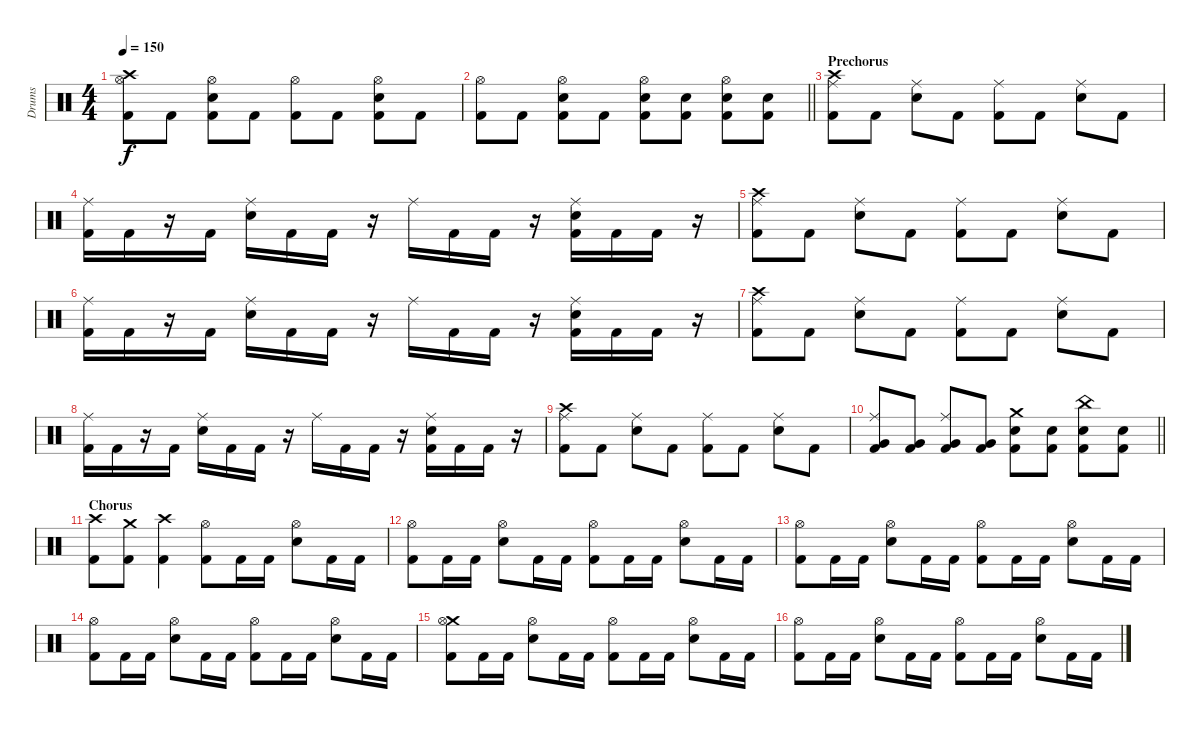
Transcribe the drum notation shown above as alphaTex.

\track ("Drums" "Drums") {instrument percussion}
\staff {score}
\articulation defaults
\ts (4 4)
\tempo 150
\clef neutral
\ks c
("Crash high (hit)" "Hi-Hat (open)" "Kick (hit) 2").8{dy f} "Kick (hit) 2".8 ("Hi-Hat (open)" "Snare (hit) 2" "Kick (hit) 2").8 "Kick (hit) 2".8 ("Hi-Hat (open)" "Kick (hit) 2").8 "Kick (hit) 2".8 ("Hi-Hat (open)" "Snare (hit) 2" "Kick (hit) 2").8 "Kick (hit) 2".8 |
\barLineRight lightlight
("Hi-Hat (open)" "Kick (hit) 2").8 "Kick (hit) 2".8 ("Hi-Hat (open)" "Snare (hit) 2" "Kick (hit) 2").8 "Kick (hit) 2".8 ("Hi-Hat (open)" "Snare (hit) 2" "Kick (hit) 2").8 ("Snare (hit) 2" "Kick (hit) 2").8 ("Hi-Hat (open)" "Snare (hit) 2" "Kick (hit) 2").8 ("Snare (hit) 2" "Kick (hit) 2").8 |
\section ("" "Prechorus")
("Crash high (hit)" "Ride (middle)" "Kick (hit) 2").8 "Kick (hit) 2".8 ("Ride (middle)" "Snare (hit) 2").8 "Kick (hit) 2".8 ("Ride (middle)" "Kick (hit) 2").8 "Kick (hit) 2".8 ("Ride (middle)" "Snare (hit) 2").8 "Kick (hit) 2".8 |
("Ride (middle)" "Kick (hit) 2").16 "Kick (hit) 2".16 r.16 "Kick (hit) 2".16 ("Ride (middle)" "Snare (hit) 2").16 "Kick (hit) 2".16 "Kick (hit) 2".16 r.16 "Ride (middle)".16 "Kick (hit) 2".16 "Kick (hit) 2".16 r.16 ("Ride (middle)" "Snare (hit) 2" "Kick (hit) 2").16 "Kick (hit) 2".16 "Kick (hit) 2".16 r.16 |
("Crash high (hit)" "Ride (middle)" "Kick (hit) 2").8 "Kick (hit) 2".8 ("Ride (middle)" "Snare (hit) 2").8 "Kick (hit) 2".8 ("Ride (middle)" "Kick (hit) 2").8 "Kick (hit) 2".8 ("Ride (middle)" "Snare (hit) 2").8 "Kick (hit) 2".8 |
("Ride (middle)" "Kick (hit) 2").16 "Kick (hit) 2".16 r.16 "Kick (hit) 2".16 ("Ride (middle)" "Snare (hit) 2").16 "Kick (hit) 2".16 "Kick (hit) 2".16 r.16 "Ride (middle)".16 "Kick (hit) 2".16 "Kick (hit) 2".16 r.16 ("Ride (middle)" "Snare (hit) 2" "Kick (hit) 2").16 "Kick (hit) 2".16 "Kick (hit) 2".16 r.16 |
("Crash high (hit)" "Ride (middle)" "Kick (hit) 2").8 "Kick (hit) 2".8 ("Ride (middle)" "Snare (hit) 2").8 "Kick (hit) 2".8 ("Ride (middle)" "Kick (hit) 2").8 "Kick (hit) 2".8 ("Ride (middle)" "Snare (hit) 2").8 "Kick (hit) 2".8 |
("Ride (middle)" "Kick (hit) 2").16 "Kick (hit) 2".16 r.16 "Kick (hit) 2".16 ("Ride (middle)" "Snare (hit) 2").16 "Kick (hit) 2".16 "Kick (hit) 2".16 r.16 "Ride (middle)".16 "Kick (hit) 2".16 "Kick (hit) 2".16 r.16 ("Ride (middle)" "Snare (hit) 2" "Kick (hit) 2").16 "Kick (hit) 2".16 "Kick (hit) 2".16 r.16 |
("Crash high (hit)" "Ride (middle)" "Kick (hit) 2").8 "Kick (hit) 2".8 ("Ride (middle)" "Snare (hit) 2").8 "Kick (hit) 2".8 ("Ride (middle)" "Kick (hit) 2").8 "Kick (hit) 2".8 ("Ride (middle)" "Snare (hit) 2").8 "Kick (hit) 2".8 |
\barLineRight lightlight
("Ride (middle)" "Very Low Tom (hit)" "Kick (hit) 2").8 ("Very Low Tom (hit)" "Kick (hit) 2").8 ("Ride (middle)" "Very Low Tom (hit)" "Kick (hit) 2").8 ("Very Low Tom (hit)" "Kick (hit) 2").8 ("Crash medium (hit)" "Snare (hit) 2" "Kick (hit) 2").8 ("Snare (hit) 2" "Kick (hit) 2").8 ("China (hit)" "Snare (hit) 2" "Kick (hit) 2").8 ("Snare (hit) 2" "Kick (hit) 2").8 |
\section ("" "Chorus")
("Crash high (hit)" "Kick (hit) 2").8 ("Crash medium (hit)" "Kick (hit) 2").8 ("Crash high (hit)" "Kick (hit) 2").4 ("Hi-Hat (open)" "Kick (hit) 2").8 "Kick (hit) 2".16 "Kick (hit) 2".16 ("Hi-Hat (open)" "Snare (hit) 2").8 "Kick (hit) 2".16 "Kick (hit) 2".16 |
("Hi-Hat (open)" "Kick (hit) 2").8 "Kick (hit) 2".16 "Kick (hit) 2".16 ("Hi-Hat (open)" "Snare (hit) 2").8 "Kick (hit) 2".16 "Kick (hit) 2".16 ("Hi-Hat (open)" "Kick (hit) 2").8 "Kick (hit) 2".16 "Kick (hit) 2".16 ("Hi-Hat (open)" "Snare (hit) 2").8 "Kick (hit) 2".16 "Kick (hit) 2".16 |
("Hi-Hat (open)" "Kick (hit) 2").8 "Kick (hit) 2".16 "Kick (hit) 2".16 ("Hi-Hat (open)" "Snare (hit) 2").8 "Kick (hit) 2".16 "Kick (hit) 2".16 ("Hi-Hat (open)" "Kick (hit) 2").8 "Kick (hit) 2".16 "Kick (hit) 2".16 ("Hi-Hat (open)" "Snare (hit) 2").8 "Kick (hit) 2".16 "Kick (hit) 2".16 |
("Hi-Hat (open)" "Kick (hit) 2").8 "Kick (hit) 2".16 "Kick (hit) 2".16 ("Hi-Hat (open)" "Snare (hit) 2").8 "Kick (hit) 2".16 "Kick (hit) 2".16 ("Hi-Hat (open)" "Kick (hit) 2").8 "Kick (hit) 2".16 "Kick (hit) 2".16 ("Hi-Hat (open)" "Snare (hit) 2").8 "Kick (hit) 2".16 "Kick (hit) 2".16 |
("Crash medium (hit)" "Hi-Hat (open)" "Kick (hit) 2").8 "Kick (hit) 2".16 "Kick (hit) 2".16 ("Hi-Hat (open)" "Snare (hit) 2").8 "Kick (hit) 2".16 "Kick (hit) 2".16 ("Hi-Hat (open)" "Kick (hit) 2").8 "Kick (hit) 2".16 "Kick (hit) 2".16 ("Hi-Hat (open)" "Snare (hit) 2").8 "Kick (hit) 2".16 "Kick (hit) 2".16 |
("Hi-Hat (open)" "Kick (hit) 2").8 "Kick (hit) 2".16 "Kick (hit) 2".16 ("Hi-Hat (open)" "Snare (hit) 2").8 "Kick (hit) 2".16 "Kick (hit) 2".16 ("Hi-Hat (open)" "Kick (hit) 2").8 "Kick (hit) 2".16 "Kick (hit) 2".16 ("Hi-Hat (open)" "Snare (hit) 2").8 "Kick (hit) 2".16 "Kick (hit) 2".16
